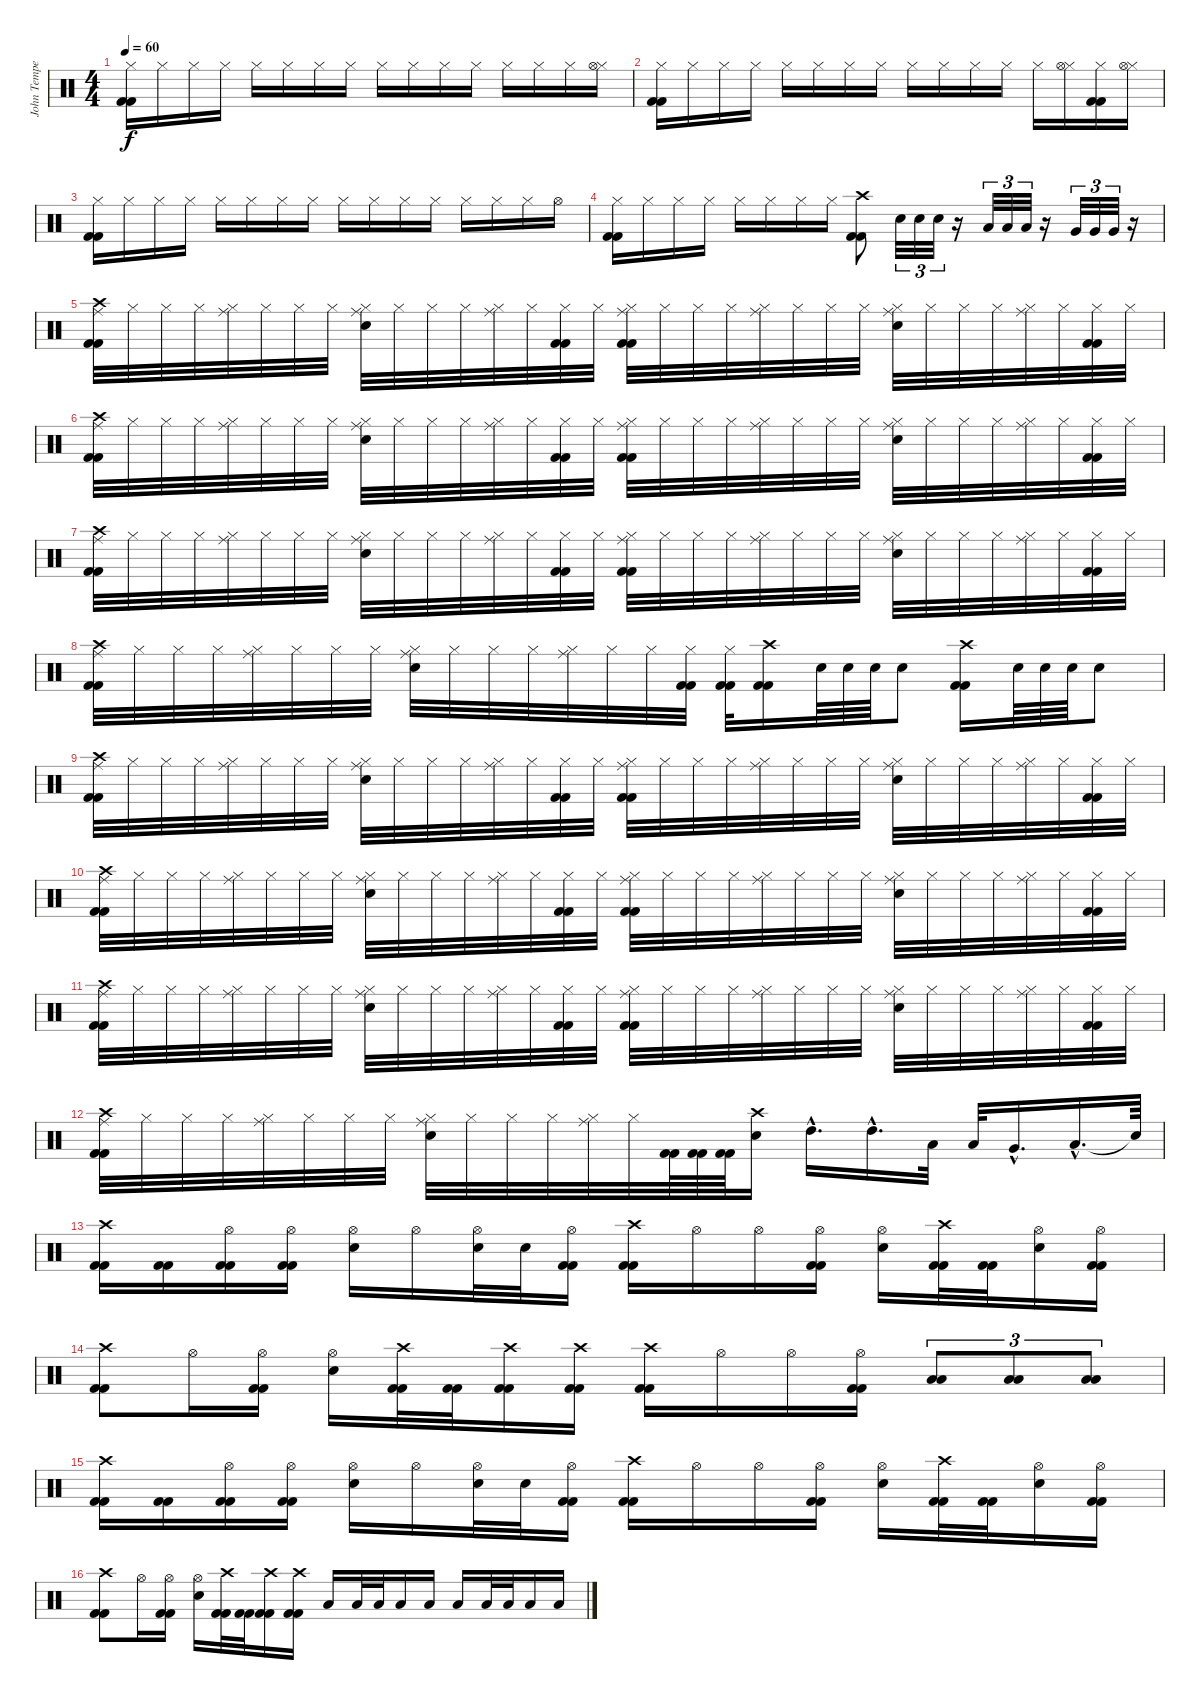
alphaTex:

\track ("John Tempesta" "John Tempe") {instrument percussion}
\staff {score}
\articulation defaults
\ts (4 4)
\tempo 60
\clef neutral
\ks c
("Hi-Hat (closed)" "Kick (hit) 2" "Kick (hit) 2").16{dy f} "Hi-Hat (closed)".16 "Hi-Hat (closed)".16 "Hi-Hat (closed)".16 "Hi-Hat (closed)".16 "Hi-Hat (closed)".16 "Hi-Hat (closed)".16 "Hi-Hat (closed)".16 "Hi-Hat (closed)".16 "Hi-Hat (closed)".16 "Hi-Hat (closed)".16 "Hi-Hat (closed)".16 "Hi-Hat (closed)".16 "Hi-Hat (closed)".16 "Hi-Hat (closed)".16 ("Hi-Hat (closed)" "Hi-Hat (open)").16 |
("Hi-Hat (closed)" "Kick (hit) 2" "Kick (hit) 2").16 "Hi-Hat (closed)".16 "Hi-Hat (closed)".16 "Hi-Hat (closed)".16 "Hi-Hat (closed)".16 "Hi-Hat (closed)".16 "Hi-Hat (closed)".16 "Hi-Hat (closed)".16 "Hi-Hat (closed)".16 "Hi-Hat (closed)".16 "Hi-Hat (closed)".16 "Hi-Hat (closed)".16 "Hi-Hat (closed)".16 ("Hi-Hat (closed)" "Hi-Hat (open)").16 ("Hi-Hat (closed)" "Kick (hit) 2" "Kick (hit) 2").16 ("Hi-Hat (closed)" "Hi-Hat (open)").16 |
("Hi-Hat (closed)" "Kick (hit) 2" "Kick (hit) 2").16 "Hi-Hat (closed)".16 "Hi-Hat (closed)".16 "Hi-Hat (closed)".16 "Hi-Hat (closed)".16 "Hi-Hat (closed)".16 "Hi-Hat (closed)".16 "Hi-Hat (closed)".16 "Hi-Hat (closed)".16 "Hi-Hat (closed)".16 "Hi-Hat (closed)".16 "Hi-Hat (closed)".16 "Hi-Hat (closed)".16 "Hi-Hat (closed)".16 "Hi-Hat (closed)".16 "Hi-Hat (open)".16 |
("Hi-Hat (closed)" "Kick (hit) 2" "Kick (hit) 2").16 "Hi-Hat (closed)".16 "Hi-Hat (closed)".16 "Hi-Hat (closed)".16 "Hi-Hat (closed)".16 "Hi-Hat (closed)".16 "Hi-Hat (closed)".16 "Hi-Hat (closed)".16 ("Crash high (hit)" "Kick (hit) 2" "Kick (hit) 2").8 "Electric Snare (hit)".32{tu (3 2)} "Electric Snare (hit)".32{tu (3 2)} "Electric Snare (hit)".32{tu (3 2)} r.16 "Low Tom (hit)".32{tu (3 2)} "Low Tom (hit)".32{tu (3 2)} "Low Tom (hit)".32{tu (3 2)} r.16 "Very Low Tom (hit)".32{tu (3 2)} "Very Low Tom (hit)".32{tu (3 2)} "Very Low Tom (hit)".32{tu (3 2)} r.16 |
("Crash high (hit)" "Ride (middle)" "Kick (hit) 2" "Kick (hit) 2").32 "Hi-Hat (closed)".32 "Hi-Hat (closed)".32 "Hi-Hat (closed)".32 ("Hi-Hat (closed)" "Ride (middle)").32 "Hi-Hat (closed)".32 "Hi-Hat (closed)".32 "Hi-Hat (closed)".32 ("Hi-Hat (closed)" "Ride (middle)" "Electric Snare (hit)").32 "Hi-Hat (closed)".32 "Hi-Hat (closed)".32 "Hi-Hat (closed)".32 ("Hi-Hat (closed)" "Ride (middle)").32 "Hi-Hat (closed)".32 ("Hi-Hat (closed)" "Kick (hit) 2" "Kick (hit) 2").32 "Hi-Hat (closed)".32 ("Hi-Hat (closed)" "Ride (middle)" "Kick (hit) 2" "Kick (hit) 2").32 "Hi-Hat (closed)".32 "Hi-Hat (closed)".32 "Hi-Hat (closed)".32 ("Hi-Hat (closed)" "Ride (middle)").32 "Hi-Hat (closed)".32 "Hi-Hat (closed)".32 "Hi-Hat (closed)".32 ("Hi-Hat (closed)" "Ride (middle)" "Electric Snare (hit)").32 "Hi-Hat (closed)".32 "Hi-Hat (closed)".32 "Hi-Hat (closed)".32 ("Hi-Hat (closed)" "Ride (middle)").32 "Hi-Hat (closed)".32 ("Hi-Hat (closed)" "Kick (hit) 2" "Kick (hit) 2").32 "Hi-Hat (closed)".32 |
("Crash high (hit)" "Ride (middle)" "Kick (hit) 2" "Kick (hit) 2").32 "Hi-Hat (closed)".32 "Hi-Hat (closed)".32 "Hi-Hat (closed)".32 ("Hi-Hat (closed)" "Ride (middle)").32 "Hi-Hat (closed)".32 "Hi-Hat (closed)".32 "Hi-Hat (closed)".32 ("Hi-Hat (closed)" "Ride (middle)" "Electric Snare (hit)").32 "Hi-Hat (closed)".32 "Hi-Hat (closed)".32 "Hi-Hat (closed)".32 ("Hi-Hat (closed)" "Ride (middle)").32 "Hi-Hat (closed)".32 ("Hi-Hat (closed)" "Kick (hit) 2" "Kick (hit) 2").32 "Hi-Hat (closed)".32 ("Hi-Hat (closed)" "Ride (middle)" "Kick (hit) 2" "Kick (hit) 2").32 "Hi-Hat (closed)".32 "Hi-Hat (closed)".32 "Hi-Hat (closed)".32 ("Hi-Hat (closed)" "Ride (middle)").32 "Hi-Hat (closed)".32 "Hi-Hat (closed)".32 "Hi-Hat (closed)".32 ("Hi-Hat (closed)" "Ride (middle)" "Electric Snare (hit)").32 "Hi-Hat (closed)".32 "Hi-Hat (closed)".32 "Hi-Hat (closed)".32 ("Hi-Hat (closed)" "Ride (middle)").32 "Hi-Hat (closed)".32 ("Hi-Hat (closed)" "Kick (hit) 2" "Kick (hit) 2").32 "Hi-Hat (closed)".32 |
("Crash high (hit)" "Ride (middle)" "Kick (hit) 2" "Kick (hit) 2").32 "Hi-Hat (closed)".32 "Hi-Hat (closed)".32 "Hi-Hat (closed)".32 ("Hi-Hat (closed)" "Ride (middle)").32 "Hi-Hat (closed)".32 "Hi-Hat (closed)".32 "Hi-Hat (closed)".32 ("Hi-Hat (closed)" "Ride (middle)" "Electric Snare (hit)").32 "Hi-Hat (closed)".32 "Hi-Hat (closed)".32 "Hi-Hat (closed)".32 ("Hi-Hat (closed)" "Ride (middle)").32 "Hi-Hat (closed)".32 ("Hi-Hat (closed)" "Kick (hit) 2" "Kick (hit) 2").32 "Hi-Hat (closed)".32 ("Hi-Hat (closed)" "Ride (middle)" "Kick (hit) 2" "Kick (hit) 2").32 "Hi-Hat (closed)".32 "Hi-Hat (closed)".32 "Hi-Hat (closed)".32 ("Hi-Hat (closed)" "Ride (middle)").32 "Hi-Hat (closed)".32 "Hi-Hat (closed)".32 "Hi-Hat (closed)".32 ("Hi-Hat (closed)" "Ride (middle)" "Electric Snare (hit)").32 "Hi-Hat (closed)".32 "Hi-Hat (closed)".32 "Hi-Hat (closed)".32 ("Hi-Hat (closed)" "Ride (middle)").32 "Hi-Hat (closed)".32 ("Hi-Hat (closed)" "Kick (hit) 2" "Kick (hit) 2").32 "Hi-Hat (closed)".32 |
("Crash high (hit)" "Ride (middle)" "Kick (hit) 2" "Kick (hit) 2").32 "Hi-Hat (closed)".32 "Hi-Hat (closed)".32 "Hi-Hat (closed)".32 ("Hi-Hat (closed)" "Ride (middle)").32 "Hi-Hat (closed)".32 "Hi-Hat (closed)".32 "Hi-Hat (closed)".32 ("Hi-Hat (closed)" "Ride (middle)" "Electric Snare (hit)").32 "Hi-Hat (closed)".32 "Hi-Hat (closed)".32 "Hi-Hat (closed)".32 ("Hi-Hat (closed)" "Ride (middle)").32 "Hi-Hat (closed)".32 "Hi-Hat (closed)".32 ("Hi-Hat (closed)" "Kick (hit) 2" "Kick (hit) 2").32 ("Hi-Hat (closed)" "Kick (hit) 2" "Kick (hit) 2").32 ("Crash high (hit)" "Kick (hit) 2" "Kick (hit) 2").16 "Electric Snare (hit)".64 "Electric Snare (hit)".64 "Electric Snare (hit)".64 "Electric Snare (hit)".8 ("Crash high (hit)" "Kick (hit) 2" "Kick (hit) 2").16 "Electric Snare (hit)".64 "Electric Snare (hit)".64 "Electric Snare (hit)".64 "Electric Snare (hit)".8 |
("Crash high (hit)" "Ride (middle)" "Kick (hit) 2" "Kick (hit) 2").32 "Hi-Hat (closed)".32 "Hi-Hat (closed)".32 "Hi-Hat (closed)".32 ("Hi-Hat (closed)" "Ride (middle)").32 "Hi-Hat (closed)".32 "Hi-Hat (closed)".32 "Hi-Hat (closed)".32 ("Hi-Hat (closed)" "Ride (middle)" "Electric Snare (hit)").32 "Hi-Hat (closed)".32 "Hi-Hat (closed)".32 "Hi-Hat (closed)".32 ("Hi-Hat (closed)" "Ride (middle)").32 "Hi-Hat (closed)".32 ("Hi-Hat (closed)" "Kick (hit) 2" "Kick (hit) 2").32 "Hi-Hat (closed)".32 ("Hi-Hat (closed)" "Ride (middle)" "Kick (hit) 2" "Kick (hit) 2").32 "Hi-Hat (closed)".32 "Hi-Hat (closed)".32 "Hi-Hat (closed)".32 ("Hi-Hat (closed)" "Ride (middle)").32 "Hi-Hat (closed)".32 "Hi-Hat (closed)".32 "Hi-Hat (closed)".32 ("Hi-Hat (closed)" "Ride (middle)" "Electric Snare (hit)").32 "Hi-Hat (closed)".32 "Hi-Hat (closed)".32 "Hi-Hat (closed)".32 ("Hi-Hat (closed)" "Ride (middle)").32 "Hi-Hat (closed)".32 ("Hi-Hat (closed)" "Kick (hit) 2" "Kick (hit) 2").32 "Hi-Hat (closed)".32 |
("Crash high (hit)" "Ride (middle)" "Kick (hit) 2" "Kick (hit) 2").32 "Hi-Hat (closed)".32 "Hi-Hat (closed)".32 "Hi-Hat (closed)".32 ("Hi-Hat (closed)" "Ride (middle)").32 "Hi-Hat (closed)".32 "Hi-Hat (closed)".32 "Hi-Hat (closed)".32 ("Hi-Hat (closed)" "Ride (middle)" "Electric Snare (hit)").32 "Hi-Hat (closed)".32 "Hi-Hat (closed)".32 "Hi-Hat (closed)".32 ("Hi-Hat (closed)" "Ride (middle)").32 "Hi-Hat (closed)".32 ("Hi-Hat (closed)" "Kick (hit) 2" "Kick (hit) 2").32 "Hi-Hat (closed)".32 ("Hi-Hat (closed)" "Ride (middle)" "Kick (hit) 2" "Kick (hit) 2").32 "Hi-Hat (closed)".32 "Hi-Hat (closed)".32 "Hi-Hat (closed)".32 ("Hi-Hat (closed)" "Ride (middle)").32 "Hi-Hat (closed)".32 "Hi-Hat (closed)".32 "Hi-Hat (closed)".32 ("Hi-Hat (closed)" "Ride (middle)" "Electric Snare (hit)").32 "Hi-Hat (closed)".32 "Hi-Hat (closed)".32 "Hi-Hat (closed)".32 ("Hi-Hat (closed)" "Ride (middle)").32 "Hi-Hat (closed)".32 ("Hi-Hat (closed)" "Kick (hit) 2" "Kick (hit) 2").32 "Hi-Hat (closed)".32 |
("Crash high (hit)" "Ride (middle)" "Kick (hit) 2" "Kick (hit) 2").32 "Hi-Hat (closed)".32 "Hi-Hat (closed)".32 "Hi-Hat (closed)".32 ("Hi-Hat (closed)" "Ride (middle)").32 "Hi-Hat (closed)".32 "Hi-Hat (closed)".32 "Hi-Hat (closed)".32 ("Hi-Hat (closed)" "Ride (middle)" "Electric Snare (hit)").32 "Hi-Hat (closed)".32 "Hi-Hat (closed)".32 "Hi-Hat (closed)".32 ("Hi-Hat (closed)" "Ride (middle)").32 "Hi-Hat (closed)".32 ("Hi-Hat (closed)" "Kick (hit) 2" "Kick (hit) 2").32 "Hi-Hat (closed)".32 ("Hi-Hat (closed)" "Ride (middle)" "Kick (hit) 2" "Kick (hit) 2").32 "Hi-Hat (closed)".32 "Hi-Hat (closed)".32 "Hi-Hat (closed)".32 ("Hi-Hat (closed)" "Ride (middle)").32 "Hi-Hat (closed)".32 "Hi-Hat (closed)".32 "Hi-Hat (closed)".32 ("Hi-Hat (closed)" "Ride (middle)" "Electric Snare (hit)").32 "Hi-Hat (closed)".32 "Hi-Hat (closed)".32 "Hi-Hat (closed)".32 ("Hi-Hat (closed)" "Ride (middle)").32 "Hi-Hat (closed)".32 ("Hi-Hat (closed)" "Kick (hit) 2" "Kick (hit) 2").32 "Hi-Hat (closed)".32 |
("Crash high (hit)" "Ride (middle)" "Kick (hit) 2" "Kick (hit) 2").32 "Hi-Hat (closed)".32 "Hi-Hat (closed)".32 "Hi-Hat (closed)".32 ("Hi-Hat (closed)" "Ride (middle)").32 "Hi-Hat (closed)".32 "Hi-Hat (closed)".32 "Hi-Hat (closed)".32 ("Hi-Hat (closed)" "Ride (middle)" "Electric Snare (hit)").32 "Hi-Hat (closed)".32 "Hi-Hat (closed)".32 "Hi-Hat (closed)".32 ("Hi-Hat (closed)" "Ride (middle)").32 "Hi-Hat (closed)".32 ("Kick (hit) 2" "Kick (hit) 2").64 ("Kick (hit) 2" "Kick (hit) 2").64 ("Kick (hit) 2" "Kick (hit) 2").64 ("Crash high (hit)" "Electric Snare (hit)").16 "High Tom (hit)"{hac}.16{d} "High Tom (hit)"{hac}.16{d} "Low Tom (hit)".32 "Low Tom (hit)".32 "Very Low Tom (hit)"{hac}.16{d} "Low Floor Tom (hit)"{hac}.16{d} "Snare (hit)"{t}.64 |
("Crash high (hit)" "Kick (hit) 2" "Kick (hit) 2").16 ("Kick (hit) 2" "Kick (hit) 2").16 ("Hi-Hat (open)" "Kick (hit) 2" "Kick (hit) 2").16 ("Hi-Hat (open)" "Kick (hit) 2" "Kick (hit) 2").16 ("Hi-Hat (open)" "Electric Snare (hit)").16 "Hi-Hat (open)".16 ("Hi-Hat (open)" "Electric Snare (hit)").32 "Electric Snare (hit)".32 ("Hi-Hat (open)" "Kick (hit) 2" "Kick (hit) 2").16 ("Crash high (hit)" "Kick (hit) 2" "Kick (hit) 2").16 "Hi-Hat (open)".16 "Hi-Hat (open)".16 ("Hi-Hat (open)" "Kick (hit) 2" "Kick (hit) 2").16 ("Hi-Hat (open)" "Electric Snare (hit)").16 ("Crash high (hit)" "Kick (hit) 2" "Kick (hit) 2").32 ("Kick (hit) 2" "Kick (hit) 2").32 ("Hi-Hat (open)" "Electric Snare (hit)").16 ("Hi-Hat (open)" "Kick (hit) 2" "Kick (hit) 2").16 |
("Crash high (hit)" "Kick (hit) 2" "Kick (hit) 2").8 "Hi-Hat (open)".16 ("Hi-Hat (open)" "Kick (hit) 2" "Kick (hit) 2").16 ("Hi-Hat (open)" "Electric Snare (hit)").16 ("Crash high (hit)" "Kick (hit) 2" "Kick (hit) 2").32 ("Kick (hit) 2" "Kick (hit) 2").32 ("Crash high (hit)" "Kick (hit) 2" "Kick (hit) 2").16 ("Crash high (hit)" "Kick (hit) 2" "Kick (hit) 2").16 ("Crash high (hit)" "Kick (hit) 2" "Kick (hit) 2").16 "Hi-Hat (open)".16 "Hi-Hat (open)".16 ("Hi-Hat (open)" "Kick (hit) 2" "Kick (hit) 2").16 ("Low Floor Tom (hit)" "Low Floor Tom (hit)").8{tu (3 2)} ("Low Floor Tom (hit)" "Low Floor Tom (hit)").8{tu (3 2)} ("Low Floor Tom (hit)" "Low Floor Tom (hit)").8{tu (3 2)} |
("Crash high (hit)" "Kick (hit) 2" "Kick (hit) 2").16 ("Kick (hit) 2" "Kick (hit) 2").16 ("Hi-Hat (open)" "Kick (hit) 2" "Kick (hit) 2").16 ("Hi-Hat (open)" "Kick (hit) 2" "Kick (hit) 2").16 ("Hi-Hat (open)" "Electric Snare (hit)").16 "Hi-Hat (open)".16 ("Hi-Hat (open)" "Electric Snare (hit)").32 "Electric Snare (hit)".32 ("Hi-Hat (open)" "Kick (hit) 2" "Kick (hit) 2").16 ("Crash high (hit)" "Kick (hit) 2" "Kick (hit) 2").16 "Hi-Hat (open)".16 "Hi-Hat (open)".16 ("Hi-Hat (open)" "Kick (hit) 2" "Kick (hit) 2").16 ("Hi-Hat (open)" "Electric Snare (hit)").16 ("Crash high (hit)" "Kick (hit) 2" "Kick (hit) 2").32 ("Kick (hit) 2" "Kick (hit) 2").32 ("Hi-Hat (open)" "Electric Snare (hit)").16 ("Hi-Hat (open)" "Kick (hit) 2" "Kick (hit) 2").16 |
("Crash high (hit)" "Kick (hit) 2" "Kick (hit) 2").8 "Hi-Hat (open)".16 ("Hi-Hat (open)" "Kick (hit) 2" "Kick (hit) 2").16 ("Hi-Hat (open)" "Electric Snare (hit)").16 ("Crash high (hit)" "Kick (hit) 2" "Kick (hit) 2").32 ("Kick (hit) 2" "Kick (hit) 2").32 ("Crash high (hit)" "Kick (hit) 2" "Kick (hit) 2").16 ("Crash high (hit)" "Kick (hit) 2" "Kick (hit) 2").16 "Low Floor Tom (hit)".16 "Low Floor Tom (hit)".32 "Low Floor Tom (hit)".32 "Low Floor Tom (hit)".16 "Low Floor Tom (hit)".16 "Low Floor Tom (hit)".16 "Low Floor Tom (hit)".32 "Low Floor Tom (hit)".32 "Low Floor Tom (hit)".16 "Low Floor Tom (hit)".16
